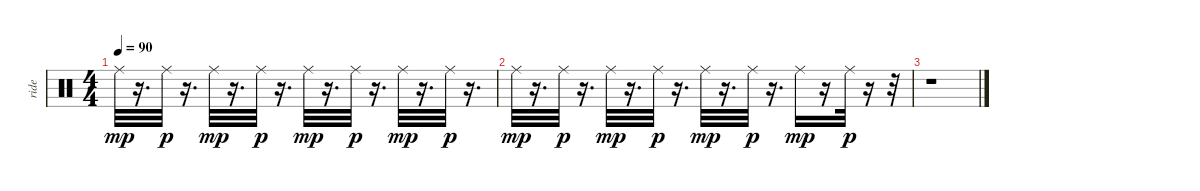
\track ("ride" "ride") {instrument percussion}
\staff {score}
\articulation defaults
\ts (4 4)
\tempo 90
\clef neutral
\ks c "Ride (middle)".32{dy mp}
r.16{d} "Ride (middle)".32{dy p} r.16{d} "Ride (middle)".32{dy mp} r.16{d} "Ride (middle)".32{dy p} r.16{d} "Ride (middle)".32{dy mp} r.16{d} "Ride (middle)".32{dy p} r.16{d} "Ride (middle)".32{dy mp} r.16{d} "Ride (middle)".32{dy p} r.16{d} |
"Ride (middle)".32{dy mp} r.16{d} "Ride (middle)".32{dy p} r.16{d} "Ride (middle)".32{dy mp} r.16{d} "Ride (middle)".32{dy p} r.16{d} "Ride (middle)".32{dy mp} r.16{d} "Ride (middle)".32{dy p} r.16{d} "Ride (middle)".16{dy mp} r.16 "Ride (middle)".32{dy p} r.16 r.32 |
r.1
